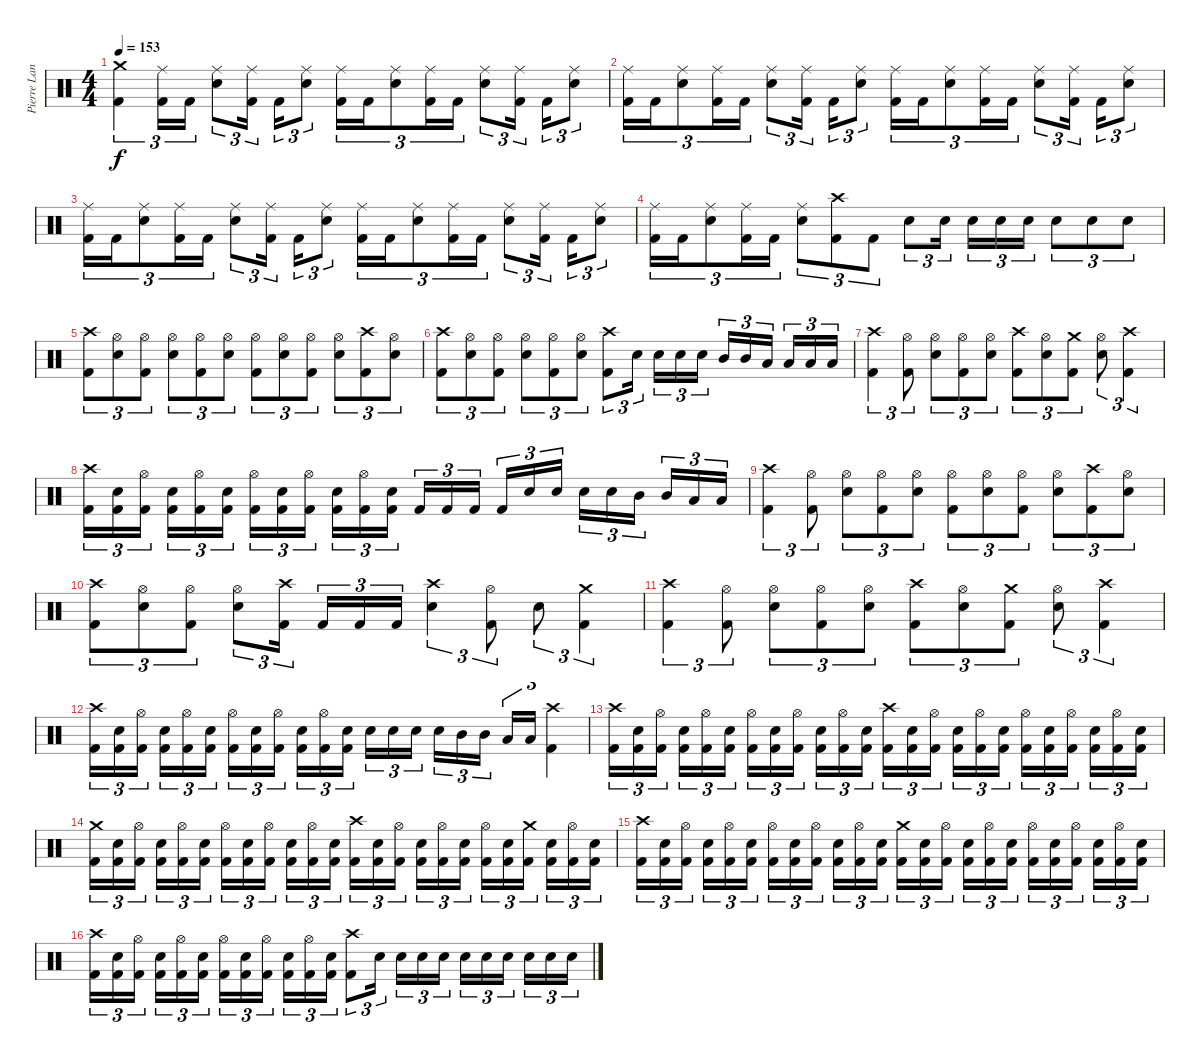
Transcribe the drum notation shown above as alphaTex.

\track ("Pierre Langlois (Drums)" "Pierre Lan") {instrument percussion}
\staff {score}
\articulation defaults
\ts (4 4)
\tempo 153
\clef neutral
\ks c
("Crash medium (hit)" "Kick (hit) 2").4{tu (3 2) dy f} ("Ride (middle)" "Kick (hit) 2").16{tu (3 2)} "Kick (hit) 2".16{tu (3 2)} ("Ride (middle)" "Snare (hit) 2").8{tu (3 2)} ("Ride (middle)" "Kick (hit) 2").16{tu (3 2)} "Kick (hit) 2".16{tu (3 2)} ("Ride (middle)" "Snare (hit) 2").8{tu (3 2)} ("Ride (middle)" "Kick (hit) 2").16{tu (3 2)} "Kick (hit) 2".16{tu (3 2)} ("Ride (middle)" "Snare (hit) 2").8{tu (3 2)} ("Ride (middle)" "Kick (hit) 2").16{tu (3 2)} "Kick (hit) 2".16{tu (3 2)} ("Ride (middle)" "Snare (hit) 2").8{tu (3 2)} ("Ride (middle)" "Kick (hit) 2").16{tu (3 2)} "Kick (hit) 2".16{tu (3 2)} ("Ride (middle)" "Snare (hit) 2").8{tu (3 2)} |
("Ride (middle)" "Kick (hit) 2").16{tu (3 2)} "Kick (hit) 2".16{tu (3 2)} ("Ride (middle)" "Snare (hit) 2").8{tu (3 2)} ("Ride (middle)" "Kick (hit) 2").16{tu (3 2)} "Kick (hit) 2".16{tu (3 2)} ("Ride (middle)" "Snare (hit) 2").8{tu (3 2)} ("Ride (middle)" "Kick (hit) 2").16{tu (3 2)} "Kick (hit) 2".16{tu (3 2)} ("Ride (middle)" "Snare (hit) 2").8{tu (3 2)} ("Ride (middle)" "Kick (hit) 2").16{tu (3 2)} "Kick (hit) 2".16{tu (3 2)} ("Ride (middle)" "Snare (hit) 2").8{tu (3 2)} ("Ride (middle)" "Kick (hit) 2").16{tu (3 2)} "Kick (hit) 2".16{tu (3 2)} ("Ride (middle)" "Snare (hit) 2").8{tu (3 2)} ("Ride (middle)" "Kick (hit) 2").16{tu (3 2)} "Kick (hit) 2".16{tu (3 2)} ("Ride (middle)" "Snare (hit) 2").8{tu (3 2)} |
("Ride (middle)" "Kick (hit) 2").16{tu (3 2)} "Kick (hit) 2".16{tu (3 2)} ("Ride (middle)" "Snare (hit) 2").8{tu (3 2)} ("Ride (middle)" "Kick (hit) 2").16{tu (3 2)} "Kick (hit) 2".16{tu (3 2)} ("Ride (middle)" "Snare (hit) 2").8{tu (3 2)} ("Ride (middle)" "Kick (hit) 2").16{tu (3 2)} "Kick (hit) 2".16{tu (3 2)} ("Ride (middle)" "Snare (hit) 2").8{tu (3 2)} ("Ride (middle)" "Kick (hit) 2").16{tu (3 2)} "Kick (hit) 2".16{tu (3 2)} ("Ride (middle)" "Snare (hit) 2").8{tu (3 2)} ("Ride (middle)" "Kick (hit) 2").16{tu (3 2)} "Kick (hit) 2".16{tu (3 2)} ("Ride (middle)" "Snare (hit) 2").8{tu (3 2)} ("Ride (middle)" "Kick (hit) 2").16{tu (3 2)} "Kick (hit) 2".16{tu (3 2)} ("Ride (middle)" "Snare (hit) 2").8{tu (3 2)} |
("Ride (middle)" "Kick (hit) 2").16{tu (3 2)} "Kick (hit) 2".16{tu (3 2)} ("Ride (middle)" "Snare (hit) 2").8{tu (3 2)} ("Ride (middle)" "Kick (hit) 2").16{tu (3 2)} "Kick (hit) 2".16{tu (3 2)} ("Ride (middle)" "Snare (hit) 2").8{tu (3 2)} ("Crash high (hit)" "Kick (hit) 2").8{tu (3 2)} "Kick (hit) 2".8{tu (3 2)} "Snare (hit) 2".8{tu (3 2)} "Snare (hit) 2".16{tu (3 2)} "Snare (hit) 2".16{tu (3 2)} "Snare (hit) 2".16{tu (3 2)} "Snare (hit) 2".16{tu (3 2)} "Snare (hit) 2".8{tu (3 2)} "Snare (hit) 2".8{tu (3 2)} "Snare (hit) 2".8{tu (3 2)} |
("Crash high (hit)" "Kick (hit) 2").8{tu (3 2)} ("Hi-Hat (open)" "Snare (hit) 2").8{tu (3 2)} ("Hi-Hat (open)" "Kick (hit) 2").8{tu (3 2)} ("Hi-Hat (open)" "Snare (hit) 2").8{tu (3 2)} ("Hi-Hat (open)" "Kick (hit) 2").8{tu (3 2)} ("Hi-Hat (open)" "Snare (hit) 2").8{tu (3 2)} ("Hi-Hat (open)" "Kick (hit) 2").8{tu (3 2)} ("Hi-Hat (open)" "Snare (hit) 2").8{tu (3 2)} ("Hi-Hat (open)" "Kick (hit) 2").8{tu (3 2)} ("Hi-Hat (open)" "Snare (hit) 2").8{tu (3 2)} ("Crash high (hit)" "Kick (hit) 2").8{tu (3 2)} ("Hi-Hat (open)" "Snare (hit) 2").8{tu (3 2)} |
("Crash high (hit)" "Kick (hit) 2").8{tu (3 2)} ("Hi-Hat (open)" "Snare (hit) 2").8{tu (3 2)} ("Hi-Hat (open)" "Kick (hit) 2").8{tu (3 2)} ("Hi-Hat (open)" "Snare (hit) 2").8{tu (3 2)} ("Hi-Hat (open)" "Kick (hit) 2").8{tu (3 2)} ("Hi-Hat (open)" "Snare (hit) 2").8{tu (3 2)} ("Crash high (hit)" "Kick (hit) 2").8{tu (3 2)} "Snare (hit) 2".16{tu (3 2)} "Snare (hit) 2".16{tu (3 2)} "Snare (hit) 2".16{tu (3 2)} "Snare (hit) 2".16{tu (3 2)} "Mid Tom (hit)".16{tu (3 2)} "Mid Tom (hit)".16{tu (3 2)} "Low Tom (hit)".16{tu (3 2)} "Low Tom (hit)".16{tu (3 2)} "Low Floor Tom (hit)".16{tu (3 2)} "Low Floor Tom (hit)".16{tu (3 2)} |
("Crash high (hit)" "Kick (hit) 2").4{tu (3 2)} ("Hi-Hat (open)" "Kick (hit) 2").8{tu (3 2)} ("Hi-Hat (open)" "Snare (hit) 2").8{tu (3 2)} ("Hi-Hat (open)" "Kick (hit) 2").8{tu (3 2)} ("Hi-Hat (open)" "Snare (hit) 2").8{tu (3 2)} ("Crash high (hit)" "Kick (hit) 2").8{tu (3 2)} ("Hi-Hat (open)" "Snare (hit) 2").8{tu (3 2)} ("Crash medium (hit)" "Kick (hit) 2").8{tu (3 2)} ("Hi-Hat (open)" "Snare (hit) 2").8{tu (3 2)} ("Crash high (hit)" "Kick (hit) 2").4{tu (3 2)} |
("Crash high (hit)" "Kick (hit) 2").16{tu (3 2)} ("Snare (hit) 2" "Kick (hit) 2").16{tu (3 2)} ("Hi-Hat (open)" "Kick (hit) 2").16{tu (3 2)} ("Snare (hit) 2" "Kick (hit) 2").16{tu (3 2)} ("Hi-Hat (open)" "Kick (hit) 2").16{tu (3 2)} ("Snare (hit) 2" "Kick (hit) 2").16{tu (3 2)} ("Hi-Hat (open)" "Kick (hit) 2").16{tu (3 2)} ("Snare (hit) 2" "Kick (hit) 2").16{tu (3 2)} ("Hi-Hat (open)" "Kick (hit) 2").16{tu (3 2)} ("Snare (hit) 2" "Kick (hit) 2").16{tu (3 2)} ("Hi-Hat (open)" "Kick (hit) 2").16{tu (3 2)} ("Snare (hit) 2" "Kick (hit) 2").16{tu (3 2)} "Kick (hit) 2".16{tu (3 2)} "Kick (hit) 2".16{tu (3 2)} "Kick (hit) 2".16{tu (3 2)} "Kick (hit) 2".16{tu (3 2)} "Snare (hit) 2".16{tu (3 2)} "Snare (hit) 2".16{tu (3 2)} "Snare (hit) 2".16{tu (3 2)} "Snare (hit) 2".16{tu (3 2)} "Mid Tom (hit)".16{tu (3 2)} "Mid Tom (hit)".16{tu (3 2)} "Low Tom (hit)".16{tu (3 2)} "Low Floor Tom (hit)".16{tu (3 2)} |
("Crash high (hit)" "Kick (hit) 2").4{tu (3 2)} ("Hi-Hat (open)" "Kick (hit) 2").8{tu (3 2)} ("Hi-Hat (open)" "Snare (hit) 2").8{tu (3 2)} ("Hi-Hat (open)" "Kick (hit) 2").8{tu (3 2)} ("Hi-Hat (open)" "Snare (hit) 2").8{tu (3 2)} ("Hi-Hat (open)" "Kick (hit) 2").8{tu (3 2)} ("Hi-Hat (open)" "Snare (hit) 2").8{tu (3 2)} ("Hi-Hat (open)" "Kick (hit) 2").8{tu (3 2)} ("Hi-Hat (open)" "Snare (hit) 2").8{tu (3 2)} ("Crash high (hit)" "Kick (hit) 2").8{tu (3 2)} ("Hi-Hat (open)" "Snare (hit) 2").8{tu (3 2)} |
("Crash high (hit)" "Kick (hit) 2").8{tu (3 2)} ("Hi-Hat (open)" "Snare (hit) 2").8{tu (3 2)} ("Hi-Hat (open)" "Kick (hit) 2").8{tu (3 2)} ("Hi-Hat (open)" "Snare (hit) 2").8{tu (3 2)} ("Crash high (hit)" "Kick (hit) 2").16{tu (3 2)} "Kick (hit) 2".16{tu (3 2)} "Kick (hit) 2".16{tu (3 2)} "Kick (hit) 2".16{tu (3 2)} ("Crash high (hit)" "Snare (hit) 2").4{tu (3 2)} ("Hi-Hat (open)" "Kick (hit) 2").8{tu (3 2)} "Snare (hit) 2".8{tu (3 2)} ("Crash medium (hit)" "Kick (hit) 2").4{tu (3 2)} |
("Crash high (hit)" "Kick (hit) 2").4{tu (3 2)} ("Hi-Hat (open)" "Kick (hit) 2").8{tu (3 2)} ("Hi-Hat (open)" "Snare (hit) 2").8{tu (3 2)} ("Hi-Hat (open)" "Kick (hit) 2").8{tu (3 2)} ("Hi-Hat (open)" "Snare (hit) 2").8{tu (3 2)} ("Crash high (hit)" "Kick (hit) 2").8{tu (3 2)} ("Hi-Hat (open)" "Snare (hit) 2").8{tu (3 2)} ("Crash medium (hit)" "Kick (hit) 2").8{tu (3 2)} ("Hi-Hat (open)" "Snare (hit) 2").8{tu (3 2)} ("Crash high (hit)" "Kick (hit) 2").4{tu (3 2)} |
("Crash high (hit)" "Kick (hit) 2").16{tu (3 2)} ("Snare (hit) 2" "Kick (hit) 2").16{tu (3 2)} ("Hi-Hat (open)" "Kick (hit) 2").16{tu (3 2)} ("Snare (hit) 2" "Kick (hit) 2").16{tu (3 2)} ("Hi-Hat (open)" "Kick (hit) 2").16{tu (3 2)} ("Snare (hit) 2" "Kick (hit) 2").16{tu (3 2)} ("Hi-Hat (open)" "Kick (hit) 2").16{tu (3 2)} ("Snare (hit) 2" "Kick (hit) 2").16{tu (3 2)} ("Hi-Hat (open)" "Kick (hit) 2").16{tu (3 2)} ("Snare (hit) 2" "Kick (hit) 2").16{tu (3 2)} ("Hi-Hat (open)" "Kick (hit) 2").16{tu (3 2)} ("Snare (hit) 2" "Kick (hit) 2").16{tu (3 2)} "Snare (hit) 2".16{tu (3 2)} "Snare (hit) 2".16{tu (3 2)} "Snare (hit) 2".16{tu (3 2)} "Snare (hit) 2".16{tu (3 2)} "Mid Tom (hit)".16{tu (3 2)} "Mid Tom (hit)".16{tu (3 2)} "Low Tom (hit)".16{tu (3 2)} "Low Tom (hit)".16{tu (3 2)} ("Crash high (hit)" "Kick (hit) 2").4{tu (3 2)} |
("Crash high (hit)" "Kick (hit) 2").16{tu (3 2)} ("Snare (hit) 2" "Kick (hit) 2").16{tu (3 2)} ("Hi-Hat (open)" "Kick (hit) 2").16{tu (3 2)} ("Snare (hit) 2" "Kick (hit) 2").16{tu (3 2)} ("Hi-Hat (open)" "Kick (hit) 2").16{tu (3 2)} ("Snare (hit) 2" "Kick (hit) 2").16{tu (3 2)} ("Hi-Hat (open)" "Kick (hit) 2").16{tu (3 2)} ("Snare (hit) 2" "Kick (hit) 2").16{tu (3 2)} ("Hi-Hat (open)" "Kick (hit) 2").16{tu (3 2)} ("Snare (hit) 2" "Kick (hit) 2").16{tu (3 2)} ("Hi-Hat (open)" "Kick (hit) 2").16{tu (3 2)} ("Snare (hit) 2" "Kick (hit) 2").16{tu (3 2)} ("Crash high (hit)" "Kick (hit) 2").16{tu (3 2)} ("Snare (hit) 2" "Kick (hit) 2").16{tu (3 2)} ("Hi-Hat (open)" "Kick (hit) 2").16{tu (3 2)} ("Snare (hit) 2" "Kick (hit) 2").16{tu (3 2)} ("Hi-Hat (open)" "Kick (hit) 2").16{tu (3 2)} ("Snare (hit) 2" "Kick (hit) 2").16{tu (3 2)} ("Hi-Hat (open)" "Kick (hit) 2").16{tu (3 2)} ("Snare (hit) 2" "Kick (hit) 2").16{tu (3 2)} ("Hi-Hat (open)" "Kick (hit) 2").16{tu (3 2)} ("Snare (hit) 2" "Kick (hit) 2").16{tu (3 2)} ("Hi-Hat (open)" "Kick (hit) 2").16{tu (3 2)} ("Snare (hit) 2" "Kick (hit) 2").16{tu (3 2)} |
("Crash medium (hit)" "Kick (hit) 2").16{tu (3 2)} ("Snare (hit) 2" "Kick (hit) 2").16{tu (3 2)} ("Hi-Hat (open)" "Kick (hit) 2").16{tu (3 2)} ("Snare (hit) 2" "Kick (hit) 2").16{tu (3 2)} ("Hi-Hat (open)" "Kick (hit) 2").16{tu (3 2)} ("Snare (hit) 2" "Kick (hit) 2").16{tu (3 2)} ("Hi-Hat (open)" "Kick (hit) 2").16{tu (3 2)} ("Snare (hit) 2" "Kick (hit) 2").16{tu (3 2)} ("Hi-Hat (open)" "Kick (hit) 2").16{tu (3 2)} ("Snare (hit) 2" "Kick (hit) 2").16{tu (3 2)} ("Hi-Hat (open)" "Kick (hit) 2").16{tu (3 2)} ("Snare (hit) 2" "Kick (hit) 2").16{tu (3 2)} ("Crash high (hit)" "Kick (hit) 2").16{tu (3 2)} ("Snare (hit) 2" "Kick (hit) 2").16{tu (3 2)} ("Hi-Hat (open)" "Kick (hit) 2").16{tu (3 2)} ("Snare (hit) 2" "Kick (hit) 2").16{tu (3 2)} ("Hi-Hat (open)" "Kick (hit) 2").16{tu (3 2)} ("Snare (hit) 2" "Kick (hit) 2").16{tu (3 2)} ("Hi-Hat (open)" "Kick (hit) 2").16{tu (3 2)} ("Snare (hit) 2" "Kick (hit) 2").16{tu (3 2)} ("Crash medium (hit)" "Kick (hit) 2").16{tu (3 2)} ("Snare (hit) 2" "Kick (hit) 2").16{tu (3 2)} ("Hi-Hat (open)" "Kick (hit) 2").16{tu (3 2)} ("Snare (hit) 2" "Kick (hit) 2").16{tu (3 2)} |
("Crash high (hit)" "Kick (hit) 2").16{tu (3 2)} ("Snare (hit) 2" "Kick (hit) 2").16{tu (3 2)} ("Hi-Hat (open)" "Kick (hit) 2").16{tu (3 2)} ("Snare (hit) 2" "Kick (hit) 2").16{tu (3 2)} ("Hi-Hat (open)" "Kick (hit) 2").16{tu (3 2)} ("Snare (hit) 2" "Kick (hit) 2").16{tu (3 2)} ("Hi-Hat (open)" "Kick (hit) 2").16{tu (3 2)} ("Snare (hit) 2" "Kick (hit) 2").16{tu (3 2)} ("Hi-Hat (open)" "Kick (hit) 2").16{tu (3 2)} ("Snare (hit) 2" "Kick (hit) 2").16{tu (3 2)} ("Hi-Hat (open)" "Kick (hit) 2").16{tu (3 2)} ("Snare (hit) 2" "Kick (hit) 2").16{tu (3 2)} ("Crash medium (hit)" "Kick (hit) 2").16{tu (3 2)} ("Snare (hit) 2" "Kick (hit) 2").16{tu (3 2)} ("Hi-Hat (open)" "Kick (hit) 2").16{tu (3 2)} ("Snare (hit) 2" "Kick (hit) 2").16{tu (3 2)} ("Hi-Hat (open)" "Kick (hit) 2").16{tu (3 2)} ("Snare (hit) 2" "Kick (hit) 2").16{tu (3 2)} ("Hi-Hat (open)" "Kick (hit) 2").16{tu (3 2)} ("Snare (hit) 2" "Kick (hit) 2").16{tu (3 2)} ("Hi-Hat (open)" "Kick (hit) 2").16{tu (3 2)} ("Snare (hit) 2" "Kick (hit) 2").16{tu (3 2)} ("Hi-Hat (open)" "Kick (hit) 2").16{tu (3 2)} ("Snare (hit) 2" "Kick (hit) 2").16{tu (3 2)} |
("Crash high (hit)" "Kick (hit) 2").16{tu (3 2)} ("Snare (hit) 2" "Kick (hit) 2").16{tu (3 2)} ("Hi-Hat (open)" "Kick (hit) 2").16{tu (3 2)} ("Snare (hit) 2" "Kick (hit) 2").16{tu (3 2)} ("Hi-Hat (open)" "Kick (hit) 2").16{tu (3 2)} ("Snare (hit) 2" "Kick (hit) 2").16{tu (3 2)} ("Hi-Hat (open)" "Kick (hit) 2").16{tu (3 2)} ("Snare (hit) 2" "Kick (hit) 2").16{tu (3 2)} ("Hi-Hat (open)" "Kick (hit) 2").16{tu (3 2)} ("Snare (hit) 2" "Kick (hit) 2").16{tu (3 2)} ("Hi-Hat (open)" "Kick (hit) 2").16{tu (3 2)} ("Snare (hit) 2" "Kick (hit) 2").16{tu (3 2)} ("Crash high (hit)" "Kick (hit) 2").8{tu (3 2)} "Snare (hit) 2".16{tu (3 2)} "Snare (hit) 2".16{tu (3 2)} "Snare (hit) 2".16{tu (3 2)} "Snare (hit) 2".16{tu (3 2)} "Snare (hit) 2".16{tu (3 2)} "Snare (hit) 2".16{tu (3 2)} "Snare (hit) 2".16{tu (3 2)} "Snare (hit) 2".16{tu (3 2)} "Snare (hit) 2".16{tu (3 2)} "Snare (hit) 2".16{tu (3 2)}
